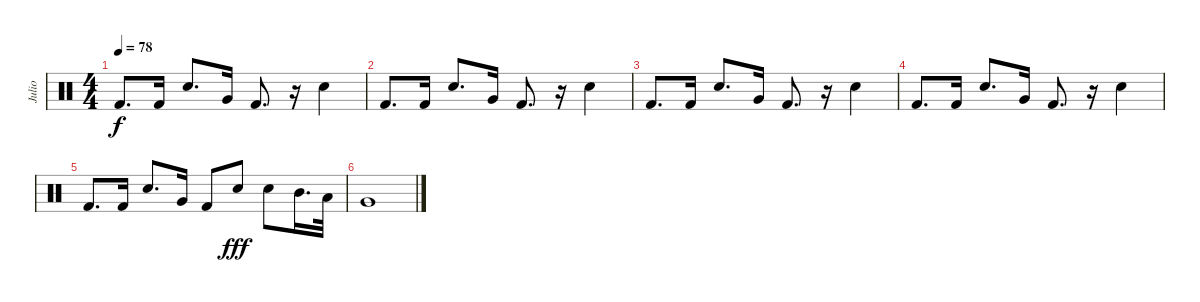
\track ("Julio" "Julio") {instrument percussion}
\staff {score}
\articulation defaults
\ts (4 4)
\tempo 78
\clef neutral
\ks c "Kick (hit) 2".8{d dy f} "Kick (hit) 2".16 "Electric Snare (hit)".8{d} "Very Low Tom (hit)".16 "Kick (hit) 2".8{d}
r.16 "Electric Snare (hit)".4 |
"Kick (hit) 2".8{d} "Kick (hit) 2".16 "Electric Snare (hit)".8{d} "Very Low Tom (hit)".16 "Kick (hit) 2".8{d} r.16 "Electric Snare (hit)".4 |
"Kick (hit) 2".8{d} "Kick (hit) 2".16 "Electric Snare (hit)".8{d} "Very Low Tom (hit)".16 "Kick (hit) 2".8{d} r.16 "Electric Snare (hit)".4 |
"Kick (hit) 2".8{d} "Kick (hit) 2".16 "Electric Snare (hit)".8{d} "Very Low Tom (hit)".16 "Kick (hit) 2".8{d} r.16 "Electric Snare (hit)".4 |
"Kick (hit) 2".8{d} "Kick (hit) 2".16 "Electric Snare (hit)".8{d} "Very Low Tom (hit)".16 "Kick (hit) 2".8 "Electric Snare (hit)".8{dy fff} "Electric Snare (hit)".8 "Mid Tom (hit)".16{d} "Low Tom (hit)".32 |
"Very Low Tom (hit)".1
